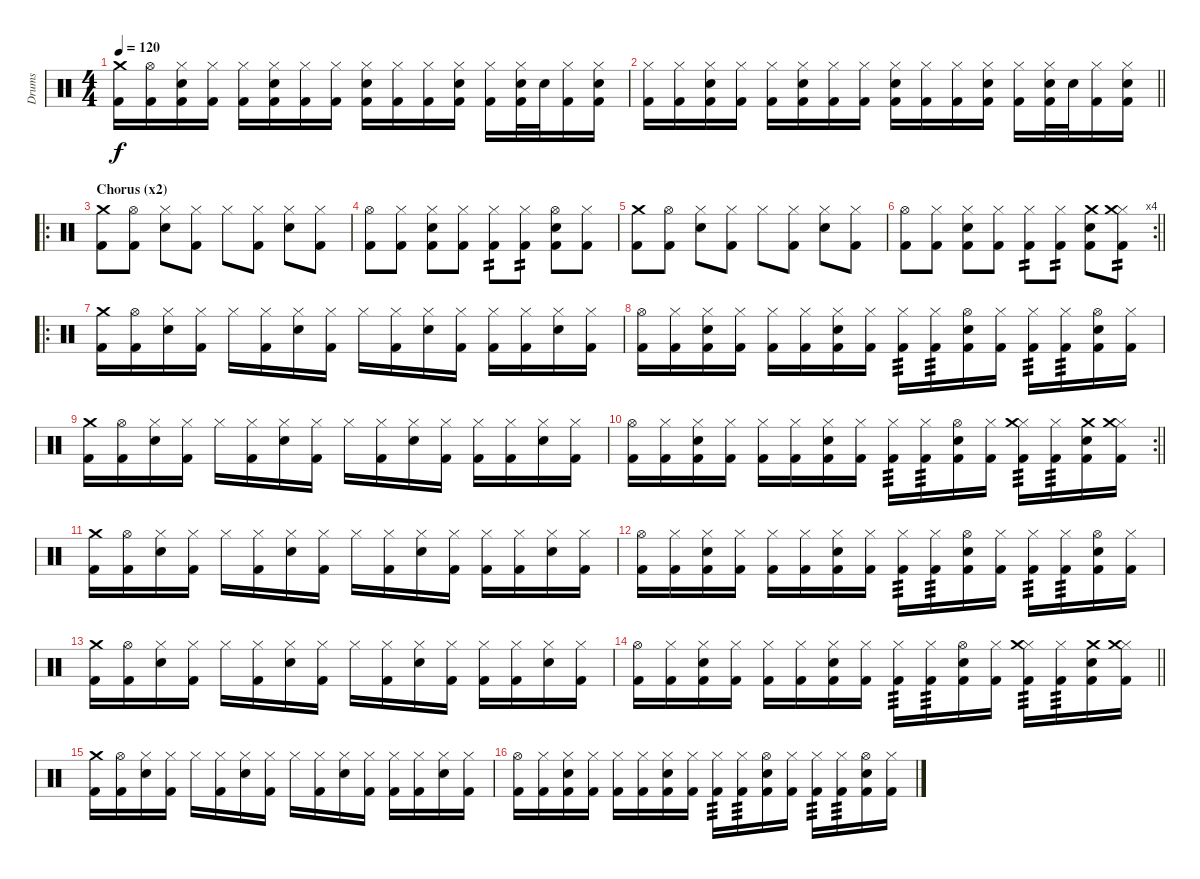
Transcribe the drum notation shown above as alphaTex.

\track ("Drums" "Drums") {instrument percussion}
\staff {score}
\articulation defaults
\ts (4 4)
\tempo 120
\clef neutral
\ks c
("Kick (hit) 2" "Crash medium (hit)").16{dy f} ("Kick (hit) 2" "Hi-Hat (open)").16 ("Kick (hit) 2" "Snare (hit) 2" "Hi-Hat (closed)").16 ("Kick (hit) 2" "Hi-Hat (closed)").16 ("Kick (hit) 2" "Hi-Hat (closed)").16 ("Kick (hit) 2" "Snare (hit) 2" "Hi-Hat (closed)").16 ("Kick (hit) 2" "Hi-Hat (closed)").16 ("Kick (hit) 2" "Hi-Hat (closed)").16 ("Kick (hit) 2" "Snare (hit) 2" "Hi-Hat (closed)").16 ("Kick (hit) 2" "Hi-Hat (closed)").16 ("Kick (hit) 2" "Hi-Hat (closed)").16 ("Kick (hit) 2" "Snare (hit) 2" "Hi-Hat (closed)").16 ("Kick (hit) 2" "Hi-Hat (closed)").16 ("Kick (hit) 2" "Snare (hit) 2" "Hi-Hat (closed)").32 "Snare (hit) 2".32 ("Kick (hit) 2" "Hi-Hat (closed)").16 ("Kick (hit) 2" "Snare (hit) 2" "Hi-Hat (closed)").16 |
\barLineRight lightlight
("Kick (hit) 2" "Hi-Hat (closed)").16 ("Kick (hit) 2" "Hi-Hat (closed)").16 ("Kick (hit) 2" "Snare (hit) 2" "Hi-Hat (closed)").16 ("Kick (hit) 2" "Hi-Hat (closed)").16 ("Kick (hit) 2" "Hi-Hat (closed)").16 ("Kick (hit) 2" "Snare (hit) 2" "Hi-Hat (closed)").16 ("Kick (hit) 2" "Hi-Hat (closed)").16 ("Kick (hit) 2" "Hi-Hat (closed)").16 ("Kick (hit) 2" "Snare (hit) 2" "Hi-Hat (closed)").16 ("Kick (hit) 2" "Hi-Hat (closed)").16 ("Kick (hit) 2" "Hi-Hat (closed)").16 ("Kick (hit) 2" "Snare (hit) 2" "Hi-Hat (closed)").16 ("Kick (hit) 2" "Hi-Hat (closed)").16 ("Kick (hit) 2" "Snare (hit) 2" "Hi-Hat (closed)").32 "Snare (hit) 2".32 ("Kick (hit) 2" "Hi-Hat (closed)").16 ("Kick (hit) 2" "Snare (hit) 2" "Hi-Hat (closed)").16 |
\ro
\section ("" "Chorus (x2)")
("Kick (hit) 2" "Crash medium (hit)").8 ("Kick (hit) 2" "Hi-Hat (open)").8 ("Snare (hit) 2" "Hi-Hat (closed)").8 ("Kick (hit) 2" "Hi-Hat (closed)").8 "Hi-Hat (closed)".8 ("Kick (hit) 2" "Hi-Hat (closed)").8 ("Snare (hit) 2" "Hi-Hat (closed)").8 ("Kick (hit) 2" "Hi-Hat (closed)").8 |
("Kick (hit) 2" "Hi-Hat (open)").8 ("Kick (hit) 2" "Hi-Hat (closed)").8 ("Kick (hit) 2" "Snare (hit) 2" "Hi-Hat (closed)").8 ("Kick (hit) 2" "Hi-Hat (closed)").8 ("Kick (hit) 2" "Hi-Hat (closed)").8{tp 2} ("Kick (hit) 2" "Hi-Hat (closed)").8{tp 2} ("Kick (hit) 2" "Snare (hit) 2" "Hi-Hat (open)").8 ("Kick (hit) 2" "Hi-Hat (closed)").8 |
("Kick (hit) 2" "Crash medium (hit)").8 ("Kick (hit) 2" "Hi-Hat (open)").8 ("Snare (hit) 2" "Hi-Hat (closed)").8 ("Kick (hit) 2" "Hi-Hat (closed)").8 "Hi-Hat (closed)".8 ("Kick (hit) 2" "Hi-Hat (closed)").8 ("Snare (hit) 2" "Hi-Hat (closed)").8 ("Kick (hit) 2" "Hi-Hat (closed)").8 |
\rc 4
\barLineRight lightlight
("Kick (hit) 2" "Hi-Hat (open)").8 ("Kick (hit) 2" "Hi-Hat (closed)").8 ("Kick (hit) 2" "Snare (hit) 2" "Hi-Hat (closed)").8 ("Kick (hit) 2" "Hi-Hat (closed)").8 ("Kick (hit) 2" "Hi-Hat (closed)").8{tp 2} ("Kick (hit) 2" "Hi-Hat (closed)").8{tp 2} ("Kick (hit) 2" "Snare (hit) 2" "Crash medium (hit)").8 ("Kick (hit) 2" "Hi-Hat (closed)" "Crash medium (hit)").8{tp 2} |
\ro
("Kick (hit) 2" "Crash medium (hit)").16 ("Kick (hit) 2" "Hi-Hat (open)").16 ("Snare (hit) 2" "Hi-Hat (closed)").16 ("Kick (hit) 2" "Hi-Hat (closed)").16 "Hi-Hat (closed)".16 ("Kick (hit) 2" "Hi-Hat (closed)").16 ("Snare (hit) 2" "Hi-Hat (closed)").16 ("Kick (hit) 2" "Hi-Hat (closed)").16 "Hi-Hat (closed)".16 ("Kick (hit) 2" "Hi-Hat (closed)").16 ("Snare (hit) 2" "Hi-Hat (closed)").16 ("Kick (hit) 2" "Hi-Hat (closed)").16 ("Kick (hit) 2" "Hi-Hat (closed)").16 ("Kick (hit) 2" "Hi-Hat (closed)").16 ("Snare (hit) 2" "Hi-Hat (closed)").16 ("Kick (hit) 2" "Hi-Hat (closed)").16 |
("Kick (hit) 2" "Hi-Hat (open)").16 ("Kick (hit) 2" "Hi-Hat (closed)").16 ("Kick (hit) 2" "Snare (hit) 2" "Hi-Hat (closed)").16 ("Kick (hit) 2" "Hi-Hat (closed)").16 ("Kick (hit) 2" "Hi-Hat (closed)").16 ("Kick (hit) 2" "Hi-Hat (closed)").16 ("Kick (hit) 2" "Snare (hit) 2" "Hi-Hat (closed)").16 ("Kick (hit) 2" "Hi-Hat (closed)").16 ("Kick (hit) 2" "Hi-Hat (closed)").16{tp 3} ("Kick (hit) 2" "Hi-Hat (closed)").16{tp 3} ("Kick (hit) 2" "Snare (hit) 2" "Hi-Hat (open)").16 ("Kick (hit) 2" "Hi-Hat (closed)").16 ("Kick (hit) 2" "Hi-Hat (closed)").16{tp 3} ("Kick (hit) 2" "Hi-Hat (closed)").16{tp 3} ("Kick (hit) 2" "Snare (hit) 2" "Hi-Hat (open)").16 ("Kick (hit) 2" "Hi-Hat (closed)").16 |
("Kick (hit) 2" "Crash medium (hit)").16 ("Kick (hit) 2" "Hi-Hat (open)").16 ("Snare (hit) 2" "Hi-Hat (closed)").16 ("Kick (hit) 2" "Hi-Hat (closed)").16 "Hi-Hat (closed)".16 ("Kick (hit) 2" "Hi-Hat (closed)").16 ("Snare (hit) 2" "Hi-Hat (closed)").16 ("Kick (hit) 2" "Hi-Hat (closed)").16 "Hi-Hat (closed)".16 ("Kick (hit) 2" "Hi-Hat (closed)").16 ("Snare (hit) 2" "Hi-Hat (closed)").16 ("Kick (hit) 2" "Hi-Hat (closed)").16 ("Kick (hit) 2" "Hi-Hat (closed)").16 ("Kick (hit) 2" "Hi-Hat (closed)").16 ("Snare (hit) 2" "Hi-Hat (closed)").16 ("Kick (hit) 2" "Hi-Hat (closed)").16 |
\rc 2
\barLineRight lightlight
("Kick (hit) 2" "Hi-Hat (open)").16 ("Kick (hit) 2" "Hi-Hat (closed)").16 ("Kick (hit) 2" "Snare (hit) 2" "Hi-Hat (closed)").16 ("Kick (hit) 2" "Hi-Hat (closed)").16 ("Kick (hit) 2" "Hi-Hat (closed)").16 ("Kick (hit) 2" "Hi-Hat (closed)").16 ("Kick (hit) 2" "Snare (hit) 2" "Hi-Hat (closed)").16 ("Kick (hit) 2" "Hi-Hat (closed)").16 ("Kick (hit) 2" "Hi-Hat (closed)").16{tp 3} ("Kick (hit) 2" "Hi-Hat (closed)").16{tp 3} ("Kick (hit) 2" "Snare (hit) 2" "Hi-Hat (open)").16 ("Kick (hit) 2" "Hi-Hat (closed)").16 ("Kick (hit) 2" "Hi-Hat (closed)" "Crash medium (hit)").16{tp 3} ("Kick (hit) 2" "Hi-Hat (closed)").16{tp 3} ("Kick (hit) 2" "Snare (hit) 2" "Crash medium (hit)").16 ("Kick (hit) 2" "Hi-Hat (closed)" "Crash medium (hit)").16 |
("Kick (hit) 2" "Crash medium (hit)").16 ("Kick (hit) 2" "Hi-Hat (open)").16 ("Snare (hit) 2" "Hi-Hat (closed)").16 ("Kick (hit) 2" "Hi-Hat (closed)").16 "Hi-Hat (closed)".16 ("Kick (hit) 2" "Hi-Hat (closed)").16 ("Snare (hit) 2" "Hi-Hat (closed)").16 ("Kick (hit) 2" "Hi-Hat (closed)").16 "Hi-Hat (closed)".16 ("Kick (hit) 2" "Hi-Hat (closed)").16 ("Snare (hit) 2" "Hi-Hat (closed)").16 ("Kick (hit) 2" "Hi-Hat (closed)").16 ("Kick (hit) 2" "Hi-Hat (closed)").16 ("Kick (hit) 2" "Hi-Hat (closed)").16 ("Snare (hit) 2" "Hi-Hat (closed)").16 ("Kick (hit) 2" "Hi-Hat (closed)").16 |
("Kick (hit) 2" "Hi-Hat (open)").16 ("Kick (hit) 2" "Hi-Hat (closed)").16 ("Kick (hit) 2" "Snare (hit) 2" "Hi-Hat (closed)").16 ("Kick (hit) 2" "Hi-Hat (closed)").16 ("Kick (hit) 2" "Hi-Hat (closed)").16 ("Kick (hit) 2" "Hi-Hat (closed)").16 ("Kick (hit) 2" "Snare (hit) 2" "Hi-Hat (closed)").16 ("Kick (hit) 2" "Hi-Hat (closed)").16 ("Kick (hit) 2" "Hi-Hat (closed)").16{tp 3} ("Kick (hit) 2" "Hi-Hat (closed)").16{tp 3} ("Kick (hit) 2" "Snare (hit) 2" "Hi-Hat (open)").16 ("Kick (hit) 2" "Hi-Hat (closed)").16 ("Kick (hit) 2" "Hi-Hat (closed)").16{tp 3} ("Kick (hit) 2" "Hi-Hat (closed)").16{tp 3} ("Kick (hit) 2" "Snare (hit) 2" "Hi-Hat (open)").16 ("Kick (hit) 2" "Hi-Hat (closed)").16 |
("Kick (hit) 2" "Crash medium (hit)").16 ("Kick (hit) 2" "Hi-Hat (open)").16 ("Snare (hit) 2" "Hi-Hat (closed)").16 ("Kick (hit) 2" "Hi-Hat (closed)").16 "Hi-Hat (closed)".16 ("Kick (hit) 2" "Hi-Hat (closed)").16 ("Snare (hit) 2" "Hi-Hat (closed)").16 ("Kick (hit) 2" "Hi-Hat (closed)").16 "Hi-Hat (closed)".16 ("Kick (hit) 2" "Hi-Hat (closed)").16 ("Snare (hit) 2" "Hi-Hat (closed)").16 ("Kick (hit) 2" "Hi-Hat (closed)").16 ("Kick (hit) 2" "Hi-Hat (closed)").16 ("Kick (hit) 2" "Hi-Hat (closed)").16 ("Snare (hit) 2" "Hi-Hat (closed)").16 ("Kick (hit) 2" "Hi-Hat (closed)").16 |
\barLineRight lightlight
("Kick (hit) 2" "Hi-Hat (open)").16 ("Kick (hit) 2" "Hi-Hat (closed)").16 ("Kick (hit) 2" "Snare (hit) 2" "Hi-Hat (closed)").16 ("Kick (hit) 2" "Hi-Hat (closed)").16 ("Kick (hit) 2" "Hi-Hat (closed)").16 ("Kick (hit) 2" "Hi-Hat (closed)").16 ("Kick (hit) 2" "Snare (hit) 2" "Hi-Hat (closed)").16 ("Kick (hit) 2" "Hi-Hat (closed)").16 ("Kick (hit) 2" "Hi-Hat (closed)").16{tp 3} ("Kick (hit) 2" "Hi-Hat (closed)").16{tp 3} ("Kick (hit) 2" "Snare (hit) 2" "Hi-Hat (open)").16 ("Kick (hit) 2" "Hi-Hat (closed)").16 ("Kick (hit) 2" "Hi-Hat (closed)" "Crash medium (hit)").16{tp 3} ("Kick (hit) 2" "Hi-Hat (closed)").16{tp 3} ("Kick (hit) 2" "Snare (hit) 2" "Crash medium (hit)").16 ("Kick (hit) 2" "Hi-Hat (closed)" "Crash medium (hit)").16 |
("Kick (hit) 2" "Crash medium (hit)").16 ("Kick (hit) 2" "Hi-Hat (open)").16 ("Snare (hit) 2" "Hi-Hat (closed)").16 ("Kick (hit) 2" "Hi-Hat (closed)").16 "Hi-Hat (closed)".16 ("Kick (hit) 2" "Hi-Hat (closed)").16 ("Snare (hit) 2" "Hi-Hat (closed)").16 ("Kick (hit) 2" "Hi-Hat (closed)").16 "Hi-Hat (closed)".16 ("Kick (hit) 2" "Hi-Hat (closed)").16 ("Snare (hit) 2" "Hi-Hat (closed)").16 ("Kick (hit) 2" "Hi-Hat (closed)").16 ("Kick (hit) 2" "Hi-Hat (closed)").16 ("Kick (hit) 2" "Hi-Hat (closed)").16 ("Snare (hit) 2" "Hi-Hat (closed)").16 ("Kick (hit) 2" "Hi-Hat (closed)").16 |
("Kick (hit) 2" "Hi-Hat (open)").16 ("Kick (hit) 2" "Hi-Hat (closed)").16 ("Kick (hit) 2" "Snare (hit) 2" "Hi-Hat (closed)").16 ("Kick (hit) 2" "Hi-Hat (closed)").16 ("Kick (hit) 2" "Hi-Hat (closed)").16 ("Kick (hit) 2" "Hi-Hat (closed)").16 ("Kick (hit) 2" "Snare (hit) 2" "Hi-Hat (closed)").16 ("Kick (hit) 2" "Hi-Hat (closed)").16 ("Kick (hit) 2" "Hi-Hat (closed)").16{tp 3} ("Kick (hit) 2" "Hi-Hat (closed)").16{tp 3} ("Kick (hit) 2" "Snare (hit) 2" "Hi-Hat (open)").16 ("Kick (hit) 2" "Hi-Hat (closed)").16 ("Kick (hit) 2" "Hi-Hat (closed)").16{tp 3} ("Kick (hit) 2" "Hi-Hat (closed)").16{tp 3} ("Kick (hit) 2" "Snare (hit) 2" "Hi-Hat (open)").16 ("Kick (hit) 2" "Hi-Hat (closed)").16
